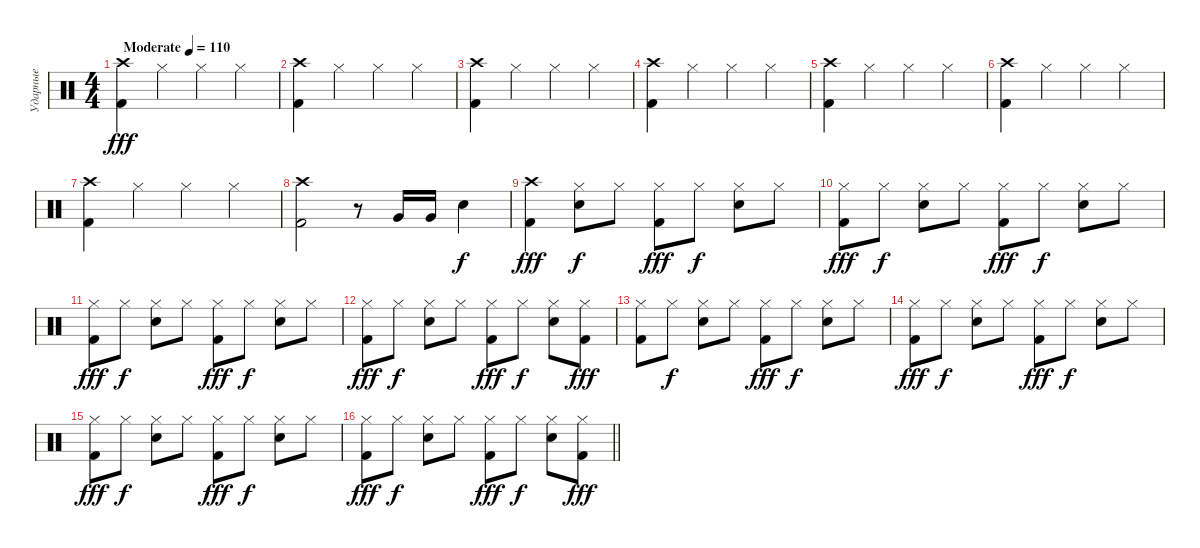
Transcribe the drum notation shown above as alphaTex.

\track ("Ударные" "Ударные") {instrument percussion}
\staff
\articulation defaults
\ts (4 4)
\tempo (110 "Moderate")
\clef neutral
\ks c
("Kick (hit) 2" "Crash high (hit)").4{dy fff} "Hi-Hat (closed)".4 "Hi-Hat (closed)".4 "Hi-Hat (closed)".4 |
("Kick (hit) 2" "Crash high (hit)").4 "Hi-Hat (closed)".4 "Hi-Hat (closed)".4 "Hi-Hat (closed)".4 |
("Kick (hit) 2" "Crash high (hit)").4 "Hi-Hat (closed)".4 "Hi-Hat (closed)".4 "Hi-Hat (closed)".4 |
("Kick (hit) 2" "Crash high (hit)").4 "Hi-Hat (closed)".4 "Hi-Hat (closed)".4 "Hi-Hat (closed)".4 |
("Kick (hit) 2" "Crash high (hit)").4 "Hi-Hat (closed)".4 "Hi-Hat (closed)".4 "Hi-Hat (closed)".4 |
("Kick (hit) 2" "Crash high (hit)").4 "Hi-Hat (closed)".4 "Hi-Hat (closed)".4 "Hi-Hat (closed)".4 |
("Kick (hit) 2" "Crash high (hit)").4 "Hi-Hat (closed)".4 "Hi-Hat (closed)".4 "Hi-Hat (closed)".4 |
("Kick (hit) 2" "Crash high (hit)").2 r.8 "Very Low Tom (hit)".16 "Very Low Tom (hit)".16 "Snare (hit) 2".4{dy f} |
("Kick (hit) 2" "Crash high (hit)").4{dy fff} ("Snare (hit) 2" "Hi-Hat (closed)").8{dy f} "Hi-Hat (closed)".8 ("Kick (hit) 2" "Hi-Hat (closed)").8{dy fff} "Hi-Hat (closed)".8{dy f} ("Snare (hit) 2" "Hi-Hat (closed)").8 "Hi-Hat (closed)".8 |
("Kick (hit) 2" "Hi-Hat (closed)").8{dy fff} "Hi-Hat (closed)".8{dy f} ("Snare (hit) 2" "Hi-Hat (closed)").8 "Hi-Hat (closed)".8 ("Kick (hit) 2" "Hi-Hat (closed)").8{dy fff} "Hi-Hat (closed)".8{dy f} ("Snare (hit) 2" "Hi-Hat (closed)").8 "Hi-Hat (closed)".8 |
("Kick (hit) 2" "Hi-Hat (closed)").8{dy fff} "Hi-Hat (closed)".8{dy f} ("Snare (hit) 2" "Hi-Hat (closed)").8 "Hi-Hat (closed)".8 ("Kick (hit) 2" "Hi-Hat (closed)").8{dy fff} "Hi-Hat (closed)".8{dy f} ("Snare (hit) 2" "Hi-Hat (closed)").8 "Hi-Hat (closed)".8 |
("Kick (hit) 2" "Hi-Hat (closed)").8{dy fff} "Hi-Hat (closed)".8{dy f} ("Snare (hit) 2" "Hi-Hat (closed)").8 "Hi-Hat (closed)".8 ("Kick (hit) 2" "Hi-Hat (closed)").8{dy fff} "Hi-Hat (closed)".8{dy f} ("Snare (hit) 2" "Hi-Hat (closed)").8 ("Kick (hit) 2" "Hi-Hat (closed)").8{dy fff} |
("Kick (hit) 2" "Hi-Hat (closed)").8 "Hi-Hat (closed)".8{dy f} ("Snare (hit) 2" "Hi-Hat (closed)").8 "Hi-Hat (closed)".8 ("Kick (hit) 2" "Hi-Hat (closed)").8{dy fff} "Hi-Hat (closed)".8{dy f} ("Snare (hit) 2" "Hi-Hat (closed)").8 "Hi-Hat (closed)".8 |
("Kick (hit) 2" "Hi-Hat (closed)").8{dy fff} "Hi-Hat (closed)".8{dy f} ("Snare (hit) 2" "Hi-Hat (closed)").8 "Hi-Hat (closed)".8 ("Kick (hit) 2" "Hi-Hat (closed)").8{dy fff} "Hi-Hat (closed)".8{dy f} ("Snare (hit) 2" "Hi-Hat (closed)").8 "Hi-Hat (closed)".8 |
("Kick (hit) 2" "Hi-Hat (closed)").8{dy fff} "Hi-Hat (closed)".8{dy f} ("Snare (hit) 2" "Hi-Hat (closed)").8 "Hi-Hat (closed)".8 ("Kick (hit) 2" "Hi-Hat (closed)").8{dy fff} "Hi-Hat (closed)".8{dy f} ("Snare (hit) 2" "Hi-Hat (closed)").8 "Hi-Hat (closed)".8 |
\barLineRight lightlight
("Kick (hit) 2" "Hi-Hat (closed)").8{dy fff} "Hi-Hat (closed)".8{dy f} ("Snare (hit) 2" "Hi-Hat (closed)").8 "Hi-Hat (closed)".8 ("Kick (hit) 2" "Hi-Hat (closed)").8{dy fff} "Hi-Hat (closed)".8{dy f} ("Snare (hit) 2" "Hi-Hat (closed)").8 ("Kick (hit) 2" "Hi-Hat (closed)").8{dy fff}
